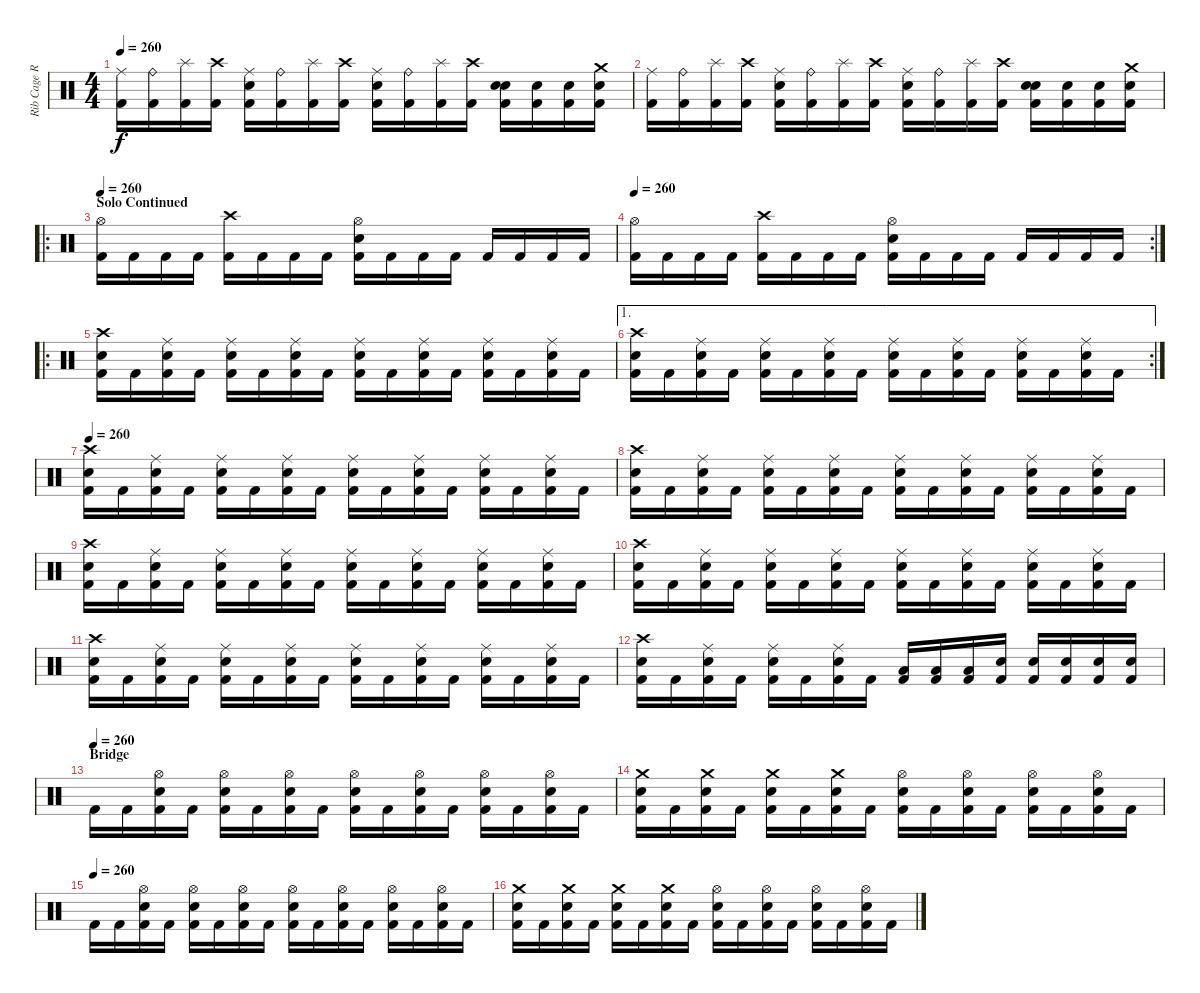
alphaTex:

\track ("Rib Cage Rupturing God Stomping Cremator" "Rib Cage R") {instrument percussion}
\staff {score}
\articulation defaults
\ts (4 4)
\tempo 260
\clef neutral
\ks c
("Ride (middle)" "Kick (hit) 2").16{dy f} ("Ride (bell)" "Kick (hit) 2").16 ("Splash (hit)" "Kick (hit) 2").16 ("Crash high (hit)" "Kick (hit) 2").16 ("Ride (middle)" "Electric Snare (hit)" "Kick (hit) 2").16 ("Ride (bell)" "Kick (hit) 2").16 ("Splash (hit)" "Kick (hit) 2").16 ("Crash high (hit)" "Kick (hit) 2").16 ("Ride (middle)" "Electric Snare (hit)" "Kick (hit) 2").16 ("Ride (bell)" "Kick (hit) 2").16 ("Splash (hit)" "Kick (hit) 2").16 ("Crash high (hit)" "Kick (hit) 2").16 ("Electric Snare (hit)" "Electric Snare (hit)" "Kick (hit) 2").16 ("Electric Snare (hit)" "Kick (hit) 2").16 ("Electric Snare (hit)" "Kick (hit) 2").16 ("Crash medium (hit)" "Electric Snare (hit)" "Kick (hit) 2").16 |
("Ride (middle)" "Kick (hit) 2").16 ("Ride (bell)" "Kick (hit) 2").16 ("Splash (hit)" "Kick (hit) 2").16 ("Crash high (hit)" "Kick (hit) 2").16 ("Ride (middle)" "Electric Snare (hit)" "Kick (hit) 2").16 ("Ride (bell)" "Kick (hit) 2").16 ("Splash (hit)" "Kick (hit) 2").16 ("Crash high (hit)" "Kick (hit) 2").16 ("Ride (middle)" "Electric Snare (hit)" "Kick (hit) 2").16 ("Ride (bell)" "Kick (hit) 2").16 ("Splash (hit)" "Kick (hit) 2").16 ("Crash high (hit)" "Kick (hit) 2").16 ("Electric Snare (hit)" "Electric Snare (hit)" "Kick (hit) 2").16 ("Electric Snare (hit)" "Kick (hit) 2").16 ("Electric Snare (hit)" "Kick (hit) 2").16 ("Crash medium (hit)" "Electric Snare (hit)" "Kick (hit) 2").16 |
\ro
\section ("" "Solo Continued")
\tempo 260
("Hi-Hat (open)" "Kick (hit) 2").16 "Kick (hit) 2".16 "Kick (hit) 2".16 "Kick (hit) 2".16 ("Crash high (hit)" "Kick (hit) 2").16 "Kick (hit) 2".16 "Kick (hit) 2".16 "Kick (hit) 2".16 ("Hi-Hat (open)" "Electric Snare (hit)" "Kick (hit) 2").16 "Kick (hit) 2".16 "Kick (hit) 2".16 "Kick (hit) 2".16 "Kick (hit) 2".16 "Kick (hit) 2".16 "Kick (hit) 2".16 "Kick (hit) 2".16 |
\rc 2
\tempo 260
("Hi-Hat (open)" "Kick (hit) 2").16 "Kick (hit) 2".16 "Kick (hit) 2".16 "Kick (hit) 2".16 ("Crash high (hit)" "Kick (hit) 2").16 "Kick (hit) 2".16 "Kick (hit) 2".16 "Kick (hit) 2".16 ("Hi-Hat (open)" "Electric Snare (hit)" "Kick (hit) 2").16 "Kick (hit) 2".16 "Kick (hit) 2".16 "Kick (hit) 2".16 "Kick (hit) 2".16 "Kick (hit) 2".16 "Kick (hit) 2".16 "Kick (hit) 2".16 |
\ro
("Crash high (hit)" "Electric Snare (hit)" "Kick (hit) 2").16 "Kick (hit) 2".16 ("Ride (middle)" "Electric Snare (hit)" "Kick (hit) 2").16 "Kick (hit) 2".16 ("Ride (middle)" "Electric Snare (hit)" "Kick (hit) 2").16 "Kick (hit) 2".16 ("Ride (middle)" "Electric Snare (hit)" "Kick (hit) 2").16 "Kick (hit) 2".16 ("Ride (middle)" "Electric Snare (hit)" "Kick (hit) 2").16 "Kick (hit) 2".16 ("Ride (middle)" "Electric Snare (hit)" "Kick (hit) 2").16 "Kick (hit) 2".16 ("Ride (middle)" "Electric Snare (hit)" "Kick (hit) 2").16 "Kick (hit) 2".16 ("Ride (middle)" "Electric Snare (hit)" "Kick (hit) 2").16 "Kick (hit) 2".16 |
\ae 1
\rc 2
("Crash high (hit)" "Electric Snare (hit)" "Kick (hit) 2").16 "Kick (hit) 2".16 ("Ride (middle)" "Electric Snare (hit)" "Kick (hit) 2").16 "Kick (hit) 2".16 ("Ride (middle)" "Electric Snare (hit)" "Kick (hit) 2").16 "Kick (hit) 2".16 ("Ride (middle)" "Electric Snare (hit)" "Kick (hit) 2").16 "Kick (hit) 2".16 ("Ride (middle)" "Electric Snare (hit)" "Kick (hit) 2").16 "Kick (hit) 2".16 ("Ride (middle)" "Electric Snare (hit)" "Kick (hit) 2").16 "Kick (hit) 2".16 ("Ride (middle)" "Electric Snare (hit)" "Kick (hit) 2").16 "Kick (hit) 2".16 ("Ride (middle)" "Electric Snare (hit)" "Kick (hit) 2").16 "Kick (hit) 2".16 |
\tempo 260
("Crash high (hit)" "Electric Snare (hit)" "Kick (hit) 2").16 "Kick (hit) 2".16 ("Ride (middle)" "Electric Snare (hit)" "Kick (hit) 2").16 "Kick (hit) 2".16 ("Ride (middle)" "Electric Snare (hit)" "Kick (hit) 2").16 "Kick (hit) 2".16 ("Ride (middle)" "Electric Snare (hit)" "Kick (hit) 2").16 "Kick (hit) 2".16 ("Ride (middle)" "Electric Snare (hit)" "Kick (hit) 2").16 "Kick (hit) 2".16 ("Ride (middle)" "Electric Snare (hit)" "Kick (hit) 2").16 "Kick (hit) 2".16 ("Ride (middle)" "Electric Snare (hit)" "Kick (hit) 2").16 "Kick (hit) 2".16 ("Ride (middle)" "Electric Snare (hit)" "Kick (hit) 2").16 "Kick (hit) 2".16 |
("Crash high (hit)" "Electric Snare (hit)" "Kick (hit) 2").16 "Kick (hit) 2".16 ("Ride (middle)" "Electric Snare (hit)" "Kick (hit) 2").16 "Kick (hit) 2".16 ("Ride (middle)" "Electric Snare (hit)" "Kick (hit) 2").16 "Kick (hit) 2".16 ("Ride (middle)" "Electric Snare (hit)" "Kick (hit) 2").16 "Kick (hit) 2".16 ("Ride (middle)" "Electric Snare (hit)" "Kick (hit) 2").16 "Kick (hit) 2".16 ("Ride (middle)" "Electric Snare (hit)" "Kick (hit) 2").16 "Kick (hit) 2".16 ("Ride (middle)" "Electric Snare (hit)" "Kick (hit) 2").16 "Kick (hit) 2".16 ("Ride (middle)" "Electric Snare (hit)" "Kick (hit) 2").16 "Kick (hit) 2".16 |
("Crash high (hit)" "Electric Snare (hit)" "Kick (hit) 2").16 "Kick (hit) 2".16 ("Ride (middle)" "Electric Snare (hit)" "Kick (hit) 2").16 "Kick (hit) 2".16 ("Ride (middle)" "Electric Snare (hit)" "Kick (hit) 2").16 "Kick (hit) 2".16 ("Ride (middle)" "Electric Snare (hit)" "Kick (hit) 2").16 "Kick (hit) 2".16 ("Ride (middle)" "Electric Snare (hit)" "Kick (hit) 2").16 "Kick (hit) 2".16 ("Ride (middle)" "Electric Snare (hit)" "Kick (hit) 2").16 "Kick (hit) 2".16 ("Ride (middle)" "Electric Snare (hit)" "Kick (hit) 2").16 "Kick (hit) 2".16 ("Ride (middle)" "Electric Snare (hit)" "Kick (hit) 2").16 "Kick (hit) 2".16 |
("Crash high (hit)" "Electric Snare (hit)" "Kick (hit) 2").16 "Kick (hit) 2".16 ("Ride (middle)" "Electric Snare (hit)" "Kick (hit) 2").16 "Kick (hit) 2".16 ("Ride (middle)" "Electric Snare (hit)" "Kick (hit) 2").16 "Kick (hit) 2".16 ("Ride (middle)" "Electric Snare (hit)" "Kick (hit) 2").16 "Kick (hit) 2".16 ("Ride (middle)" "Electric Snare (hit)" "Kick (hit) 2").16 "Kick (hit) 2".16 ("Ride (middle)" "Electric Snare (hit)" "Kick (hit) 2").16 "Kick (hit) 2".16 ("Ride (middle)" "Electric Snare (hit)" "Kick (hit) 2").16 "Kick (hit) 2".16 ("Ride (middle)" "Electric Snare (hit)" "Kick (hit) 2").16 "Kick (hit) 2".16 |
("Crash high (hit)" "Electric Snare (hit)" "Kick (hit) 2").16 "Kick (hit) 2".16 ("Ride (middle)" "Electric Snare (hit)" "Kick (hit) 2").16 "Kick (hit) 2".16 ("Ride (middle)" "Electric Snare (hit)" "Kick (hit) 2").16 "Kick (hit) 2".16 ("Ride (middle)" "Electric Snare (hit)" "Kick (hit) 2").16 "Kick (hit) 2".16 ("Ride (middle)" "Electric Snare (hit)" "Kick (hit) 2").16 "Kick (hit) 2".16 ("Ride (middle)" "Electric Snare (hit)" "Kick (hit) 2").16 "Kick (hit) 2".16 ("Ride (middle)" "Electric Snare (hit)" "Kick (hit) 2").16 "Kick (hit) 2".16 ("Ride (middle)" "Electric Snare (hit)" "Kick (hit) 2").16 "Kick (hit) 2".16 |
("Crash high (hit)" "Electric Snare (hit)" "Kick (hit) 2").16 "Kick (hit) 2".16 ("Ride (middle)" "Electric Snare (hit)" "Kick (hit) 2").16 "Kick (hit) 2".16 ("Ride (middle)" "Electric Snare (hit)" "Kick (hit) 2").16 "Kick (hit) 2".16 ("Ride (middle)" "Electric Snare (hit)" "Kick (hit) 2").16 "Kick (hit) 2".16 ("Low Floor Tom (hit)" "Kick (hit) 2").16 ("Low Floor Tom (hit)" "Kick (hit) 2").16 ("Low Floor Tom (hit)" "Kick (hit) 2").16 ("Electric Snare (hit)" "Kick (hit) 2").16 ("Electric Snare (hit)" "Kick (hit) 2").16 ("Electric Snare (hit)" "Kick (hit) 2").16 ("Electric Snare (hit)" "Kick (hit) 2").16 ("Electric Snare (hit)" "Kick (hit) 2").16 |
\section ("" "Bridge")
\tempo (260)
"Kick (hit) 2".16 "Kick (hit) 2".16 ("Hi-Hat (open)" "Electric Snare (hit)" "Kick (hit) 2").16 "Kick (hit) 2".16 ("Hi-Hat (open)" "Electric Snare (hit)" "Kick (hit) 2").16 "Kick (hit) 2".16 ("Hi-Hat (open)" "Electric Snare (hit)" "Kick (hit) 2").16 "Kick (hit) 2".16 ("Hi-Hat (open)" "Electric Snare (hit)" "Kick (hit) 2").16 "Kick (hit) 2".16 ("Hi-Hat (open)" "Electric Snare (hit)" "Kick (hit) 2").16 "Kick (hit) 2".16 ("Hi-Hat (open)" "Electric Snare (hit)" "Kick (hit) 2").16 "Kick (hit) 2".16 ("Hi-Hat (open)" "Electric Snare (hit)" "Kick (hit) 2").16 "Kick (hit) 2".16 |
("Crash medium (hit)" "Electric Snare (hit)" "Kick (hit) 2").16 "Kick (hit) 2".16 ("Crash medium (hit)" "Electric Snare (hit)" "Kick (hit) 2").16 "Kick (hit) 2".16 ("Crash medium (hit)" "Electric Snare (hit)" "Kick (hit) 2").16 "Kick (hit) 2".16 ("Crash medium (hit)" "Electric Snare (hit)" "Kick (hit) 2").16 "Kick (hit) 2".16 ("Hi-Hat (open)" "Electric Snare (hit)" "Kick (hit) 2").16 "Kick (hit) 2".16 ("Hi-Hat (open)" "Electric Snare (hit)" "Kick (hit) 2").16 "Kick (hit) 2".16 ("Hi-Hat (open)" "Electric Snare (hit)" "Kick (hit) 2").16 "Kick (hit) 2".16 ("Hi-Hat (open)" "Electric Snare (hit)" "Kick (hit) 2").16 "Kick (hit) 2".16 |
\tempo (260)
"Kick (hit) 2".16 "Kick (hit) 2".16 ("Hi-Hat (open)" "Electric Snare (hit)" "Kick (hit) 2").16 "Kick (hit) 2".16 ("Hi-Hat (open)" "Electric Snare (hit)" "Kick (hit) 2").16 "Kick (hit) 2".16 ("Hi-Hat (open)" "Electric Snare (hit)" "Kick (hit) 2").16 "Kick (hit) 2".16 ("Hi-Hat (open)" "Electric Snare (hit)" "Kick (hit) 2").16 "Kick (hit) 2".16 ("Hi-Hat (open)" "Electric Snare (hit)" "Kick (hit) 2").16 "Kick (hit) 2".16 ("Hi-Hat (open)" "Electric Snare (hit)" "Kick (hit) 2").16 "Kick (hit) 2".16 ("Hi-Hat (open)" "Electric Snare (hit)" "Kick (hit) 2").16 "Kick (hit) 2".16 |
("Crash medium (hit)" "Electric Snare (hit)" "Kick (hit) 2").16 "Kick (hit) 2".16 ("Crash medium (hit)" "Electric Snare (hit)" "Kick (hit) 2").16 "Kick (hit) 2".16 ("Crash medium (hit)" "Electric Snare (hit)" "Kick (hit) 2").16 "Kick (hit) 2".16 ("Crash medium (hit)" "Electric Snare (hit)" "Kick (hit) 2").16 "Kick (hit) 2".16 ("Hi-Hat (open)" "Electric Snare (hit)" "Kick (hit) 2").16 "Kick (hit) 2".16 ("Hi-Hat (open)" "Electric Snare (hit)" "Kick (hit) 2").16 "Kick (hit) 2".16 ("Hi-Hat (open)" "Electric Snare (hit)" "Kick (hit) 2").16 "Kick (hit) 2".16 ("Hi-Hat (open)" "Electric Snare (hit)" "Kick (hit) 2").16 "Kick (hit) 2".16
